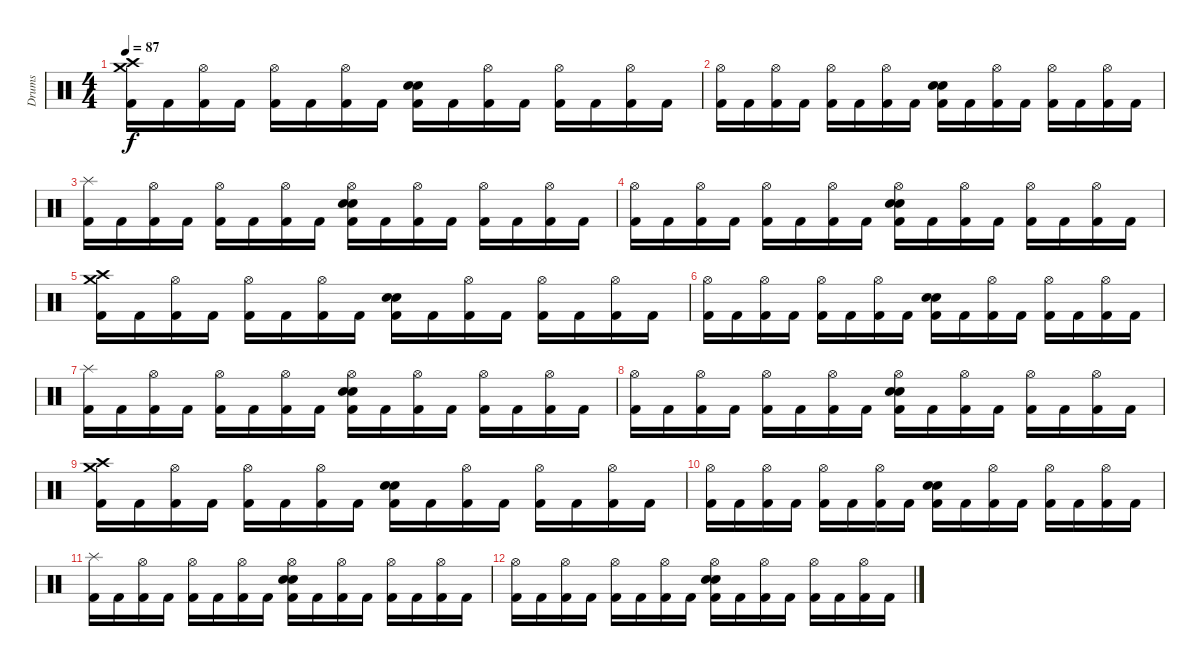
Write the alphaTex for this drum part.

\track ("Drums" "Drums") {instrument percussion}
\staff {score}
\articulation defaults
\ts (4 4)
\tempo 87
\clef neutral
\ks c
("Kick (hit) 2" "Crash medium (hit)" "Crash high (hit)").16{dy f} "Kick (hit) 2".16 ("Kick (hit) 2" "Hi-Hat (open)").16 "Kick (hit) 2".16 ("Kick (hit) 2" "Hi-Hat (open)").16 "Kick (hit) 2".16 ("Kick (hit) 2" "Hi-Hat (open)").16 "Kick (hit) 2".16 ("Kick (hit) 2" "Snare (hit) 2" "Snare (hit) 2").16 "Kick (hit) 2".16 ("Kick (hit) 2" "Hi-Hat (open)").16 "Kick (hit) 2".16 ("Kick (hit) 2" "Hi-Hat (open)").16 "Kick (hit) 2".16 ("Kick (hit) 2" "Hi-Hat (open)").16 "Kick (hit) 2".16 |
("Kick (hit) 2" "Hi-Hat (open)").16 "Kick (hit) 2".16 ("Kick (hit) 2" "Hi-Hat (open)").16 "Kick (hit) 2".16 ("Kick (hit) 2" "Hi-Hat (open)").16 "Kick (hit) 2".16 ("Kick (hit) 2" "Hi-Hat (open)").16 "Kick (hit) 2".16 ("Kick (hit) 2" "Electric Snare (hit)" "Electric Snare (hit)").16 "Kick (hit) 2".16 ("Kick (hit) 2" "Hi-Hat (open)").16 "Kick (hit) 2".16 ("Kick (hit) 2" "Hi-Hat (open)").16 "Kick (hit) 2".16 ("Kick (hit) 2" "Hi-Hat (open)").16 "Kick (hit) 2".16 |
("Kick (hit) 2" "Splash (hit)").16 "Kick (hit) 2".16 ("Kick (hit) 2" "Hi-Hat (open)").16 "Kick (hit) 2".16 ("Kick (hit) 2" "Hi-Hat (open)").16 "Kick (hit) 2".16 ("Kick (hit) 2" "Hi-Hat (open)").16 "Kick (hit) 2".16 ("Kick (hit) 2" "Snare (hit) 2" "Snare (hit) 2" "Hi-Hat (open)").16 "Kick (hit) 2".16 ("Kick (hit) 2" "Hi-Hat (open)").16 "Kick (hit) 2".16 ("Kick (hit) 2" "Hi-Hat (open)").16 "Kick (hit) 2".16 ("Kick (hit) 2" "Hi-Hat (open)").16 "Kick (hit) 2".16 |
("Kick (hit) 2" "Hi-Hat (open)").16 "Kick (hit) 2".16 ("Kick (hit) 2" "Hi-Hat (open)").16 "Kick (hit) 2".16 ("Kick (hit) 2" "Hi-Hat (open)").16 "Kick (hit) 2".16 ("Kick (hit) 2" "Hi-Hat (open)").16 "Kick (hit) 2".16 ("Kick (hit) 2" "Electric Snare (hit)" "Electric Snare (hit)" "Hi-Hat (open)").16 "Kick (hit) 2".16 ("Kick (hit) 2" "Hi-Hat (open)").16 "Kick (hit) 2".16 ("Kick (hit) 2" "Hi-Hat (open)").16 "Kick (hit) 2".16 ("Kick (hit) 2" "Hi-Hat (open)").16 "Kick (hit) 2".16 |
("Kick (hit) 2" "Crash medium (hit)" "Crash high (hit)").16 "Kick (hit) 2".16 ("Kick (hit) 2" "Hi-Hat (open)").16 "Kick (hit) 2".16 ("Kick (hit) 2" "Hi-Hat (open)").16 "Kick (hit) 2".16 ("Kick (hit) 2" "Hi-Hat (open)").16 "Kick (hit) 2".16 ("Kick (hit) 2" "Snare (hit) 2" "Snare (hit) 2").16 "Kick (hit) 2".16 ("Kick (hit) 2" "Hi-Hat (open)").16 "Kick (hit) 2".16 ("Kick (hit) 2" "Hi-Hat (open)").16 "Kick (hit) 2".16 ("Kick (hit) 2" "Hi-Hat (open)").16 "Kick (hit) 2".16 |
("Kick (hit) 2" "Hi-Hat (open)").16 "Kick (hit) 2".16 ("Kick (hit) 2" "Hi-Hat (open)").16 "Kick (hit) 2".16 ("Kick (hit) 2" "Hi-Hat (open)").16 "Kick (hit) 2".16 ("Kick (hit) 2" "Hi-Hat (open)").16 "Kick (hit) 2".16 ("Kick (hit) 2" "Electric Snare (hit)" "Electric Snare (hit)").16 "Kick (hit) 2".16 ("Kick (hit) 2" "Hi-Hat (open)").16 "Kick (hit) 2".16 ("Kick (hit) 2" "Hi-Hat (open)").16 "Kick (hit) 2".16 ("Kick (hit) 2" "Hi-Hat (open)").16 "Kick (hit) 2".16 |
("Kick (hit) 2" "Splash (hit)").16 "Kick (hit) 2".16 ("Kick (hit) 2" "Hi-Hat (open)").16 "Kick (hit) 2".16 ("Kick (hit) 2" "Hi-Hat (open)").16 "Kick (hit) 2".16 ("Kick (hit) 2" "Hi-Hat (open)").16 "Kick (hit) 2".16 ("Kick (hit) 2" "Snare (hit) 2" "Snare (hit) 2" "Hi-Hat (open)").16 "Kick (hit) 2".16 ("Kick (hit) 2" "Hi-Hat (open)").16 "Kick (hit) 2".16 ("Kick (hit) 2" "Hi-Hat (open)").16 "Kick (hit) 2".16 ("Kick (hit) 2" "Hi-Hat (open)").16 "Kick (hit) 2".16 |
("Kick (hit) 2" "Hi-Hat (open)").16 "Kick (hit) 2".16 ("Kick (hit) 2" "Hi-Hat (open)").16 "Kick (hit) 2".16 ("Kick (hit) 2" "Hi-Hat (open)").16 "Kick (hit) 2".16 ("Kick (hit) 2" "Hi-Hat (open)").16 "Kick (hit) 2".16 ("Kick (hit) 2" "Electric Snare (hit)" "Electric Snare (hit)" "Hi-Hat (open)").16 "Kick (hit) 2".16 ("Kick (hit) 2" "Hi-Hat (open)").16 "Kick (hit) 2".16 ("Kick (hit) 2" "Hi-Hat (open)").16 "Kick (hit) 2".16 ("Kick (hit) 2" "Hi-Hat (open)").16 "Kick (hit) 2".16 |
("Kick (hit) 2" "Crash medium (hit)" "Crash high (hit)").16 "Kick (hit) 2".16 ("Kick (hit) 2" "Hi-Hat (open)").16 "Kick (hit) 2".16 ("Kick (hit) 2" "Hi-Hat (open)").16 "Kick (hit) 2".16 ("Kick (hit) 2" "Hi-Hat (open)").16 "Kick (hit) 2".16 ("Kick (hit) 2" "Snare (hit) 2" "Snare (hit) 2").16 "Kick (hit) 2".16 ("Kick (hit) 2" "Hi-Hat (open)").16 "Kick (hit) 2".16 ("Kick (hit) 2" "Hi-Hat (open)").16 "Kick (hit) 2".16 ("Kick (hit) 2" "Hi-Hat (open)").16 "Kick (hit) 2".16 |
("Kick (hit) 2" "Hi-Hat (open)").16 "Kick (hit) 2".16 ("Kick (hit) 2" "Hi-Hat (open)").16 "Kick (hit) 2".16 ("Kick (hit) 2" "Hi-Hat (open)").16 "Kick (hit) 2".16 ("Kick (hit) 2" "Hi-Hat (open)").16 "Kick (hit) 2".16 ("Kick (hit) 2" "Electric Snare (hit)" "Electric Snare (hit)").16 "Kick (hit) 2".16 ("Kick (hit) 2" "Hi-Hat (open)").16 "Kick (hit) 2".16 ("Kick (hit) 2" "Hi-Hat (open)").16 "Kick (hit) 2".16 ("Kick (hit) 2" "Hi-Hat (open)").16 "Kick (hit) 2".16 |
("Kick (hit) 2" "Splash (hit)").16 "Kick (hit) 2".16 ("Kick (hit) 2" "Hi-Hat (open)").16 "Kick (hit) 2".16 ("Kick (hit) 2" "Hi-Hat (open)").16 "Kick (hit) 2".16 ("Kick (hit) 2" "Hi-Hat (open)").16 "Kick (hit) 2".16 ("Kick (hit) 2" "Snare (hit) 2" "Snare (hit) 2" "Hi-Hat (open)").16 "Kick (hit) 2".16 ("Kick (hit) 2" "Hi-Hat (open)").16 "Kick (hit) 2".16 ("Kick (hit) 2" "Hi-Hat (open)").16 "Kick (hit) 2".16 ("Kick (hit) 2" "Hi-Hat (open)").16 "Kick (hit) 2".16 |
("Kick (hit) 2" "Hi-Hat (open)").16 "Kick (hit) 2".16 ("Kick (hit) 2" "Hi-Hat (open)").16 "Kick (hit) 2".16 ("Kick (hit) 2" "Hi-Hat (open)").16 "Kick (hit) 2".16 ("Kick (hit) 2" "Hi-Hat (open)").16 "Kick (hit) 2".16 ("Kick (hit) 2" "Electric Snare (hit)" "Electric Snare (hit)" "Hi-Hat (open)").16 "Kick (hit) 2".16 ("Kick (hit) 2" "Hi-Hat (open)").16 "Kick (hit) 2".16 ("Kick (hit) 2" "Hi-Hat (open)").16 "Kick (hit) 2".16 ("Kick (hit) 2" "Hi-Hat (open)").16 "Kick (hit) 2".16
